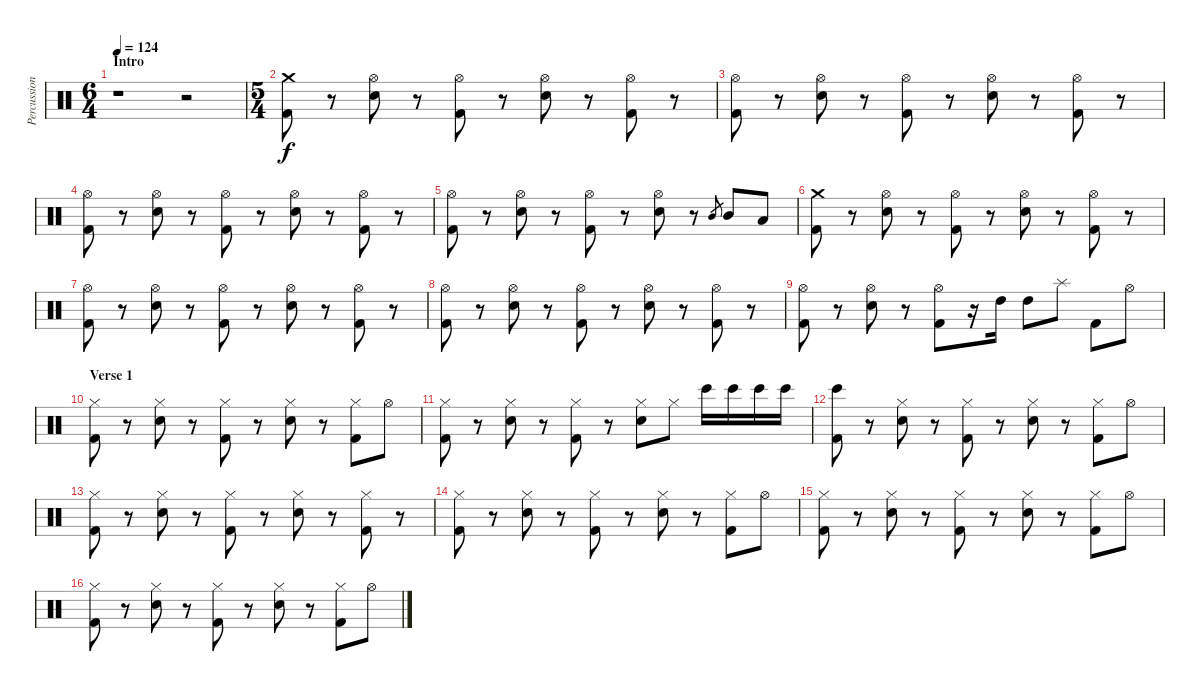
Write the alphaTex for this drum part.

\track ("Percussion" "Percussion") {instrument percussion}
\staff {score}
\articulation defaults
\ts (6 4)
\section ("" "Intro")
\tempo 124
\clef neutral
\ks c
r.1{dy f} r.2 |
\ts (5 4)
("Crash medium (hit)" "Kick (hit) 2").8 r.8 ("Hi-Hat (open)" "Snare (hit) 2").8 r.8 ("Hi-Hat (open)" "Kick (hit) 2").8 r.8 ("Hi-Hat (open)" "Snare (hit) 2").8 r.8 ("Hi-Hat (open)" "Kick (hit) 2").8 r.8 |
("Hi-Hat (open)" "Kick (hit) 2").8 r.8 ("Hi-Hat (open)" "Snare (hit) 2").8 r.8 ("Hi-Hat (open)" "Kick (hit) 2").8 r.8 ("Hi-Hat (open)" "Snare (hit) 2").8 r.8 ("Hi-Hat (open)" "Kick (hit) 2").8 r.8 |
("Hi-Hat (open)" "Kick (hit) 2").8 r.8 ("Hi-Hat (open)" "Snare (hit) 2").8 r.8 ("Hi-Hat (open)" "Kick (hit) 2").8 r.8 ("Hi-Hat (open)" "Snare (hit) 2").8 r.8 ("Hi-Hat (open)" "Kick (hit) 2").8 r.8 |
("Hi-Hat (open)" "Kick (hit) 2").8 r.8 ("Hi-Hat (open)" "Snare (hit) 2").8 r.8 ("Hi-Hat (open)" "Kick (hit) 2").8 r.8 ("Hi-Hat (open)" "Snare (hit) 2").8 r.8 "Mid Tom (hit)".8{gr} "Mid Tom (hit)".8 "Low Tom (hit)".8 |
("Crash medium (hit)" "Kick (hit) 2").8 r.8 ("Hi-Hat (open)" "Snare (hit) 2").8 r.8 ("Hi-Hat (open)" "Kick (hit) 2").8 r.8 ("Hi-Hat (open)" "Snare (hit) 2").8 r.8 ("Hi-Hat (open)" "Kick (hit) 2").8 r.8 |
("Hi-Hat (open)" "Kick (hit) 2").8 r.8 ("Hi-Hat (open)" "Snare (hit) 2").8 r.8 ("Hi-Hat (open)" "Kick (hit) 2").8 r.8 ("Hi-Hat (open)" "Snare (hit) 2").8 r.8 ("Hi-Hat (open)" "Kick (hit) 2").8 r.8 |
("Hi-Hat (open)" "Kick (hit) 2").8 r.8 ("Hi-Hat (open)" "Snare (hit) 2").8 r.8 ("Hi-Hat (open)" "Kick (hit) 2").8 r.8 ("Hi-Hat (open)" "Snare (hit) 2").8 r.8 ("Hi-Hat (open)" "Kick (hit) 2").8 r.8 |
("Hi-Hat (open)" "Kick (hit) 2").8 r.8 ("Hi-Hat (open)" "Snare (hit) 2").8 r.8 ("Hi-Hat (open)" "Kick (hit) 2").8 r.16 "High Tom (hit)".16 "High Tom (hit)".8 "Splash (hit)".8 "Kick (hit) 2".8 "Hi-Hat (open)".8 |
\section ("" "Verse 1")
("Hi-Hat (closed)" "Kick (hit) 2").8 r.8 ("Hi-Hat (closed)" "Snare (hit) 2").8 r.8 ("Hi-Hat (closed)" "Kick (hit) 2").8 r.8 ("Hi-Hat (closed)" "Snare (hit) 2").8 r.8 ("Hi-Hat (closed)" "Kick (hit) 2").8 "Hi-Hat (open)".8 |
("Hi-Hat (closed)" "Kick (hit) 2").8 r.8 ("Hi-Hat (closed)" "Snare (hit) 2").8 r.8 ("Hi-Hat (closed)" "Kick (hit) 2").8 r.8 ("Hi-Hat (closed)" "Snare (hit) 2").8 "Hi-Hat (closed)".8 "Bongo High (hit)".16 "Bongo High (hit)".16 "Bongo High (hit)".16 "Bongo High (hit)".16 |
("Bongo High (hit)" "Kick (hit) 2").8 r.8 ("Hi-Hat (closed)" "Snare (hit) 2").8 r.8 ("Hi-Hat (closed)" "Kick (hit) 2").8 r.8 ("Hi-Hat (closed)" "Snare (hit) 2").8 r.8 ("Hi-Hat (closed)" "Kick (hit) 2").8 "Hi-Hat (open)".8 |
("Hi-Hat (closed)" "Kick (hit) 2").8 r.8 ("Hi-Hat (closed)" "Snare (hit) 2").8 r.8 ("Hi-Hat (closed)" "Kick (hit) 2").8 r.8 ("Hi-Hat (closed)" "Snare (hit) 2").8 r.8 ("Hi-Hat (closed)" "Kick (hit) 2").8 r.8 |
("Hi-Hat (closed)" "Kick (hit) 2").8 r.8 ("Hi-Hat (closed)" "Snare (hit) 2").8 r.8 ("Hi-Hat (closed)" "Kick (hit) 2").8 r.8 ("Hi-Hat (closed)" "Snare (hit) 2").8 r.8 ("Hi-Hat (closed)" "Kick (hit) 2").8 "Hi-Hat (open)".8 |
("Hi-Hat (closed)" "Kick (hit) 2").8 r.8 ("Hi-Hat (closed)" "Snare (hit) 2").8 r.8 ("Hi-Hat (closed)" "Kick (hit) 2").8 r.8 ("Hi-Hat (closed)" "Snare (hit) 2").8 r.8 ("Hi-Hat (closed)" "Kick (hit) 2").8 "Hi-Hat (open)".8 |
("Hi-Hat (closed)" "Kick (hit) 2").8 r.8 ("Hi-Hat (closed)" "Snare (hit) 2").8 r.8 ("Hi-Hat (closed)" "Kick (hit) 2").8 r.8 ("Hi-Hat (closed)" "Snare (hit) 2").8 r.8 ("Hi-Hat (closed)" "Kick (hit) 2").8 "Hi-Hat (open)".8
